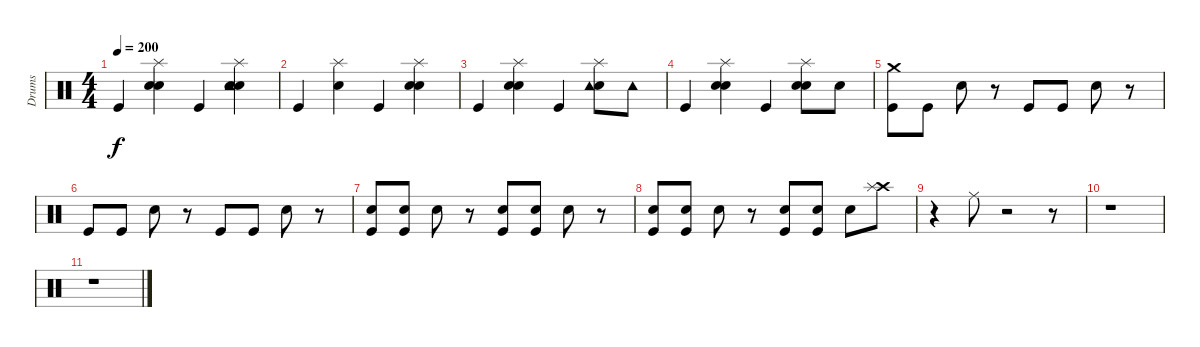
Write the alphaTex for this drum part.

\track ("Drums" "Drums") {instrument percussion}
\staff {score}
\articulation defaults
\ts (4 4)
\tempo 200
\clef neutral
\ks c "Kick (hit)".4{dy f}
("Snare (hit) 2" "Electric Snare (hit)" "Splash (hit)").4 "Kick (hit)".4 ("Snare (hit) 2" "Electric Snare (hit)" "Tambourine (hit)" "Splash (hit)").4 |
"Kick (hit)".4 ("Snare (hit) 2" "Splash (hit)").4 "Kick (hit)".4 ("Snare (hit) 2" "Electric Snare (hit)" "Splash (hit)").4 |
"Kick (hit)".4 ("Snare (hit) 2" "Electric Snare (hit)" "Splash (hit)").4 "Kick (hit)".4 ("Snare (hit) 2" "Tambourine (hit)" "Splash (hit)").8 "Tambourine (hit)".8 |
"Kick (hit)".4 ("Snare (hit) 2" "Electric Snare (hit)" "Splash (hit)").4 "Kick (hit)".4 ("Snare (hit) 2" "Electric Snare (hit)" "Splash (hit)").8 "Electric Snare (hit)".8 |
("Kick (hit)" "Crash medium (hit)").8 "Kick (hit)".8 "Electric Snare (hit)".8 r.8 "Kick (hit)".8 "Kick (hit)".8 "Electric Snare (hit)".8 r.8 |
"Kick (hit)".8 "Kick (hit)".8 "Electric Snare (hit)".8 r.8 "Kick (hit)".8 "Kick (hit)".8 "Electric Snare (hit)".8 r.8 |
("Kick (hit)" "Snare (hit) 2").8 ("Kick (hit)" "Snare (hit) 2").8 "Electric Snare (hit)".8 r.8 ("Kick (hit)" "Snare (hit) 2").8 ("Kick (hit)" "Snare (hit) 2").8 "Electric Snare (hit)".8 r.8 |
("Kick (hit)" "Snare (hit) 2").8 ("Kick (hit)" "Snare (hit) 2").8 "Electric Snare (hit)".8 r.8 ("Kick (hit)" "Snare (hit) 2").8 ("Kick (hit)" "Snare (hit) 2").8 "Electric Snare (hit)".8 ("Crash high (hit)" "Splash (hit)").8 |
r.4 "Ride (middle)".8 r.2 r.8 |
r.1 |
r.1
